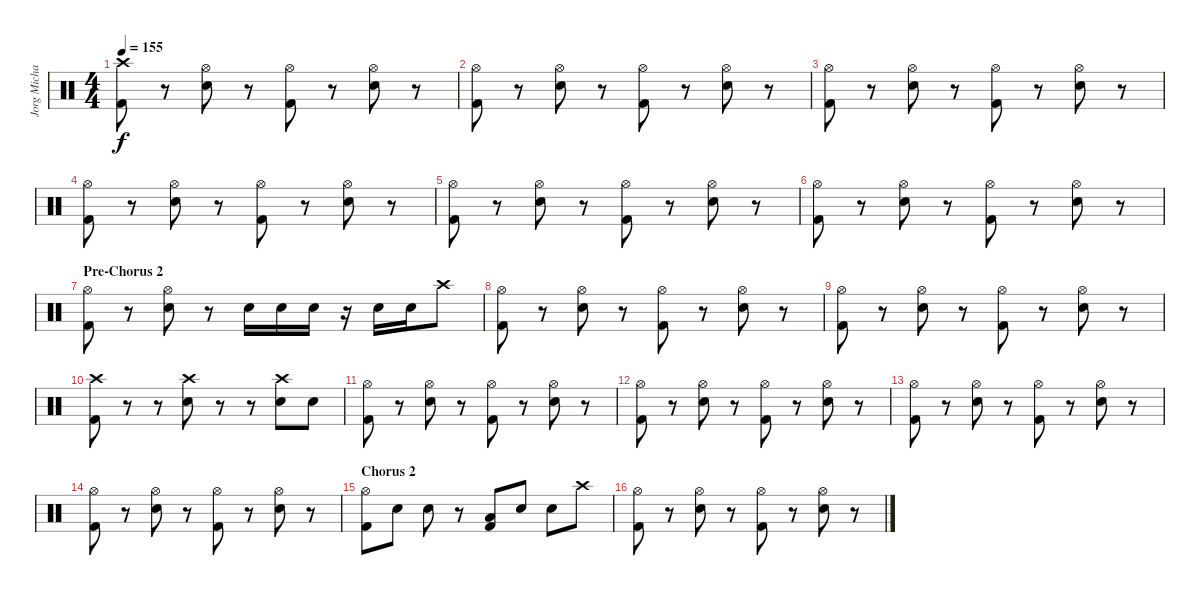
\track ("Jorg Michael - Batteria" "Jorg Micha") {instrument percussion}
\staff {score}
\articulation defaults
\ts (4 4)
\tempo 155
\clef neutral
\ks c
("Kick (hit) 2" "Crash high (hit)").8{dy f} r.8 ("Snare (hit) 2" "Hi-Hat (open)").8 r.8 ("Kick (hit) 2" "Hi-Hat (open)").8 r.8 ("Snare (hit) 2" "Hi-Hat (open)").8 r.8 |
("Kick (hit) 2" "Hi-Hat (open)").8 r.8 ("Snare (hit) 2" "Hi-Hat (open)").8 r.8 ("Kick (hit) 2" "Hi-Hat (open)").8 r.8 ("Snare (hit) 2" "Hi-Hat (open)").8 r.8 |
("Kick (hit) 2" "Hi-Hat (open)").8 r.8 ("Snare (hit) 2" "Hi-Hat (open)").8 r.8 ("Kick (hit) 2" "Hi-Hat (open)").8 r.8 ("Snare (hit) 2" "Hi-Hat (open)").8 r.8 |
("Kick (hit) 2" "Hi-Hat (open)").8 r.8 ("Snare (hit) 2" "Hi-Hat (open)").8 r.8 ("Kick (hit) 2" "Hi-Hat (open)").8 r.8 ("Snare (hit) 2" "Hi-Hat (open)").8 r.8 |
("Kick (hit) 2" "Hi-Hat (open)").8 r.8 ("Snare (hit) 2" "Hi-Hat (open)").8 r.8 ("Kick (hit) 2" "Hi-Hat (open)").8 r.8 ("Snare (hit) 2" "Hi-Hat (open)").8 r.8 |
("Kick (hit) 2" "Hi-Hat (open)").8 r.8 ("Snare (hit) 2" "Hi-Hat (open)").8 r.8 ("Kick (hit) 2" "Hi-Hat (open)").8 r.8 ("Snare (hit) 2" "Hi-Hat (open)").8 r.8 |
\section ("" "Pre-Chorus 2")
("Kick (hit) 2" "Hi-Hat (open)").8 r.8 ("Snare (hit) 2" "Hi-Hat (open)").8 r.8 "Snare (hit) 2".16 "Snare (hit) 2".16 "Snare (hit) 2".16 r.16 "Snare (hit) 2".16 "Snare (hit) 2".16 "Crash high (hit)".8 |
("Kick (hit) 2" "Hi-Hat (open)").8 r.8 ("Snare (hit) 2" "Hi-Hat (open)").8 r.8 ("Kick (hit) 2" "Hi-Hat (open)").8 r.8 ("Snare (hit) 2" "Hi-Hat (open)").8 r.8 |
("Kick (hit) 2" "Hi-Hat (open)").8 r.8 ("Snare (hit) 2" "Hi-Hat (open)").8 r.8 ("Kick (hit) 2" "Hi-Hat (open)").8 r.8 ("Snare (hit) 2" "Hi-Hat (open)").8 r.8 |
("Kick (hit) 2" "Crash high (hit)").8 r.8 r.8 ("Snare (hit) 2" "Crash high (hit)").8 r.8 r.8 ("Snare (hit) 2" "Crash high (hit)").8 "Snare (hit) 2".8 |
("Kick (hit) 2" "Hi-Hat (open)").8 r.8 ("Snare (hit) 2" "Hi-Hat (open)").8 r.8 ("Kick (hit) 2" "Hi-Hat (open)").8 r.8 ("Snare (hit) 2" "Hi-Hat (open)").8 r.8 |
("Kick (hit) 2" "Hi-Hat (open)").8 r.8 ("Snare (hit) 2" "Hi-Hat (open)").8 r.8 ("Kick (hit) 2" "Hi-Hat (open)").8 r.8 ("Snare (hit) 2" "Hi-Hat (open)").8 r.8 |
("Kick (hit) 2" "Hi-Hat (open)").8 r.8 ("Snare (hit) 2" "Hi-Hat (open)").8 r.8 ("Kick (hit) 2" "Hi-Hat (open)").8 r.8 ("Snare (hit) 2" "Hi-Hat (open)").8 r.8 |
("Kick (hit) 2" "Hi-Hat (open)").8 r.8 ("Snare (hit) 2" "Hi-Hat (open)").8 r.8 ("Kick (hit) 2" "Hi-Hat (open)").8 r.8 ("Snare (hit) 2" "Hi-Hat (open)").8 r.8 |
\section ("" "Chorus 2")
("Kick (hit) 2" "Hi-Hat (open)").8 "Snare (hit) 2".8 "Snare (hit) 2".8 r.8 ("Kick (hit) 2" "Low Tom (hit)").8 "Snare (hit) 2".8 "Snare (hit) 2".8 "Crash high (hit)".8 |
("Kick (hit) 2" "Hi-Hat (open)").8 r.8 ("Snare (hit) 2" "Hi-Hat (open)").8 r.8 ("Kick (hit) 2" "Hi-Hat (open)").8 r.8 ("Snare (hit) 2" "Hi-Hat (open)").8 r.8
